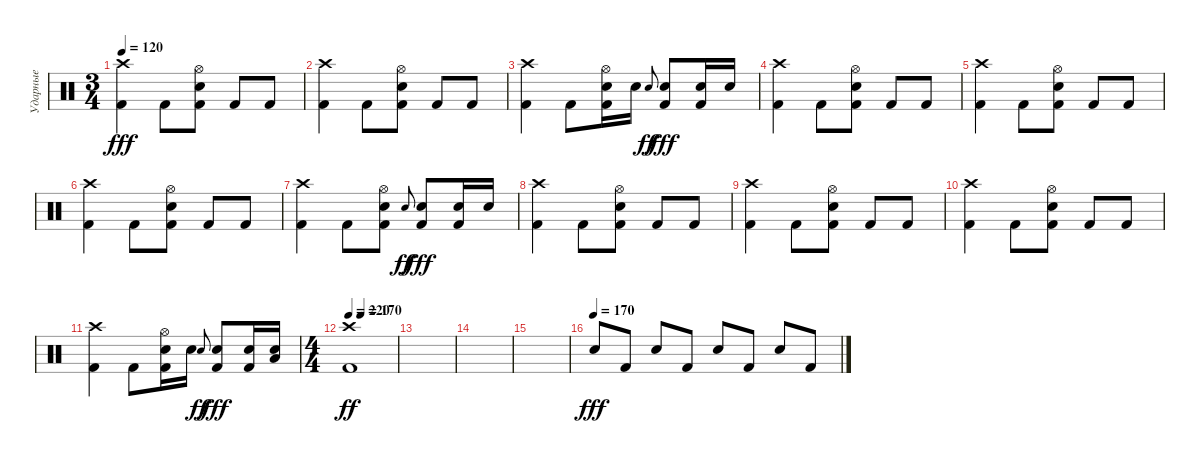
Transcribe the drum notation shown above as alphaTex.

\track ("Ударные" "Ударные") {instrument percussion}
\staff {score}
\articulation defaults
\ts (3 4)
\tempo 120
\clef neutral
\ks c
("Crash high (hit)" "Kick (hit) 2").4{dy fff} "Kick (hit) 2".8 ("Kick (hit) 2" "Electric Snare (hit)" "Hi-Hat (open)").8 "Kick (hit) 2".8 "Kick (hit) 2".8 |
("Crash high (hit)" "Kick (hit) 2").4 "Kick (hit) 2".8 ("Kick (hit) 2" "Electric Snare (hit)" "Hi-Hat (open)").8 "Kick (hit) 2".8 "Kick (hit) 2".8 |
("Crash high (hit)" "Kick (hit) 2").4 "Kick (hit) 2".8 ("Kick (hit) 2" "Electric Snare (hit)" "Hi-Hat (open)").16 "Electric Snare (hit)".16 "Electric Snare (hit)".8{gr onbeat dy ff} ("Kick (hit) 2" "Electric Snare (hit)").8{dy fff} ("Kick (hit) 2" "Electric Snare (hit)").16 "Electric Snare (hit)".16 |
("Crash high (hit)" "Kick (hit) 2").4 "Kick (hit) 2".8 ("Kick (hit) 2" "Electric Snare (hit)" "Hi-Hat (open)").8 "Kick (hit) 2".8 "Kick (hit) 2".8 |
("Crash high (hit)" "Kick (hit) 2").4 "Kick (hit) 2".8 ("Kick (hit) 2" "Electric Snare (hit)" "Hi-Hat (open)").8 "Kick (hit) 2".8 "Kick (hit) 2".8 |
("Crash high (hit)" "Kick (hit) 2").4 "Kick (hit) 2".8 ("Kick (hit) 2" "Electric Snare (hit)" "Hi-Hat (open)").8 "Kick (hit) 2".8 "Kick (hit) 2".8 |
("Crash high (hit)" "Kick (hit) 2").4 "Kick (hit) 2".8 ("Kick (hit) 2" "Electric Snare (hit)" "Hi-Hat (open)").8 "Electric Snare (hit)".8{gr onbeat dy ff} ("Kick (hit) 2" "Electric Snare (hit)").8{dy fff} ("Kick (hit) 2" "Electric Snare (hit)").16 "Electric Snare (hit)".16 |
("Crash high (hit)" "Kick (hit) 2").4 "Kick (hit) 2".8 ("Kick (hit) 2" "Electric Snare (hit)" "Hi-Hat (open)").8 "Kick (hit) 2".8 "Kick (hit) 2".8 |
("Crash high (hit)" "Kick (hit) 2").4 "Kick (hit) 2".8 ("Kick (hit) 2" "Electric Snare (hit)" "Hi-Hat (open)").8 "Kick (hit) 2".8 "Kick (hit) 2".8 |
("Crash high (hit)" "Kick (hit) 2").4 "Kick (hit) 2".8 ("Kick (hit) 2" "Electric Snare (hit)" "Hi-Hat (open)").8 "Kick (hit) 2".8 "Kick (hit) 2".8 |
("Crash high (hit)" "Kick (hit) 2").4 "Kick (hit) 2".8 ("Kick (hit) 2" "Electric Snare (hit)" "Hi-Hat (open)").16 "Electric Snare (hit)".16 "Electric Snare (hit)".8{gr onbeat dy ff} ("Kick (hit) 2" "Electric Snare (hit)").8{dy fff} ("Kick (hit) 2" "Electric Snare (hit)").16 ("Electric Snare (hit)" "Low Tom (hit)").16 |
\ts (4 4)
\tempo 220
\tempo (170 0.25)
("Crash high (hit)" "Kick (hit) 2").1{dy ff} |
|
|
|
\tempo (170)
"Electric Snare (hit)".8{dy fff} "Kick (hit) 2".8 "Electric Snare (hit)".8 "Kick (hit) 2".8 "Electric Snare (hit)".8 "Kick (hit) 2".8 "Electric Snare (hit)".8 "Kick (hit) 2".8
